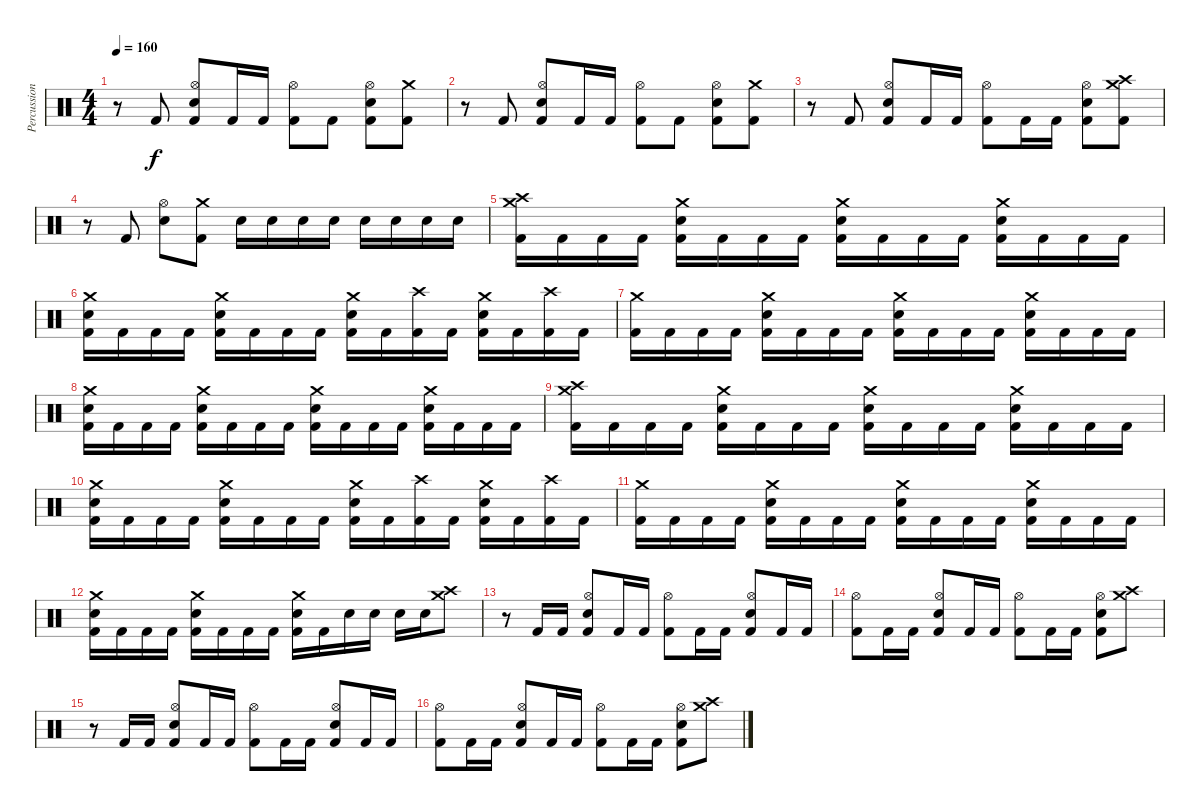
\track ("Percussion" "Percussion") {instrument percussion}
\staff {score}
\articulation defaults
\ts (4 4)
\tempo 160
\clef neutral
\ks c
r.8{dy f} "Kick (hit) 2".8 ("Hi-Hat (open)" "Electric Snare (hit)" "Kick (hit) 2").8 "Kick (hit) 2".16 "Kick (hit) 2".16 ("Hi-Hat (open)" "Kick (hit) 2").8 "Kick (hit) 2".8 ("Hi-Hat (open)" "Electric Snare (hit)" "Kick (hit) 2").8 ("Crash medium (hit)" "Kick (hit) 2").8 |
r.8 "Kick (hit) 2".8 ("Hi-Hat (open)" "Electric Snare (hit)" "Kick (hit) 2").8 "Kick (hit) 2".16 "Kick (hit) 2".16 ("Hi-Hat (open)" "Kick (hit) 2").8 "Kick (hit) 2".8 ("Hi-Hat (open)" "Electric Snare (hit)" "Kick (hit) 2").8 ("Crash medium (hit)" "Kick (hit) 2").8 |
r.8 "Kick (hit) 2".8 ("Hi-Hat (open)" "Electric Snare (hit)" "Kick (hit) 2").8 "Kick (hit) 2".16 "Kick (hit) 2".16 ("Hi-Hat (open)" "Kick (hit) 2").8 "Kick (hit) 2".16 "Kick (hit) 2".16 ("Hi-Hat (open)" "Electric Snare (hit)" "Kick (hit) 2").8 ("Crash medium (hit)" "Crash high (hit)" "Kick (hit) 2").8 |
r.8 "Kick (hit) 2".8 ("Hi-Hat (open)" "Electric Snare (hit)").8 ("Crash medium (hit)" "Kick (hit) 2").8 "Electric Snare (hit)".16 "Electric Snare (hit)".16 "Electric Snare (hit)".16 "Electric Snare (hit)".16 "Electric Snare (hit)".16 "Electric Snare (hit)".16 "Electric Snare (hit)".16 "Electric Snare (hit)".16 |
("Crash medium (hit)" "Crash high (hit)" "Kick (hit) 2").16 "Kick (hit) 2".16 "Kick (hit) 2".16 "Kick (hit) 2".16 ("Crash medium (hit)" "Electric Snare (hit)" "Kick (hit) 2").16 "Kick (hit) 2".16 "Kick (hit) 2".16 "Kick (hit) 2".16 ("Crash medium (hit)" "Electric Snare (hit)" "Kick (hit) 2").16 "Kick (hit) 2".16 "Kick (hit) 2".16 "Kick (hit) 2".16 ("Crash medium (hit)" "Electric Snare (hit)" "Kick (hit) 2").16 "Kick (hit) 2".16 "Kick (hit) 2".16 "Kick (hit) 2".16 |
("Crash medium (hit)" "Electric Snare (hit)" "Kick (hit) 2").16 "Kick (hit) 2".16 "Kick (hit) 2".16 "Kick (hit) 2".16 ("Crash medium (hit)" "Electric Snare (hit)" "Kick (hit) 2").16 "Kick (hit) 2".16 "Kick (hit) 2".16 "Kick (hit) 2".16 ("Crash medium (hit)" "Electric Snare (hit)" "Kick (hit) 2").16 "Kick (hit) 2".16 ("Crash high (hit)" "Kick (hit) 2").16 "Kick (hit) 2".16 ("Crash medium (hit)" "Electric Snare (hit)" "Kick (hit) 2").16 "Kick (hit) 2".16 ("Crash high (hit)" "Kick (hit) 2").16 "Kick (hit) 2".16 |
("Crash medium (hit)" "Kick (hit) 2").16 "Kick (hit) 2".16 "Kick (hit) 2".16 "Kick (hit) 2".16 ("Crash medium (hit)" "Electric Snare (hit)" "Kick (hit) 2").16 "Kick (hit) 2".16 "Kick (hit) 2".16 "Kick (hit) 2".16 ("Crash medium (hit)" "Electric Snare (hit)" "Kick (hit) 2").16 "Kick (hit) 2".16 "Kick (hit) 2".16 "Kick (hit) 2".16 ("Crash medium (hit)" "Electric Snare (hit)" "Kick (hit) 2").16 "Kick (hit) 2".16 "Kick (hit) 2".16 "Kick (hit) 2".16 |
("Crash medium (hit)" "Electric Snare (hit)" "Kick (hit) 2").16 "Kick (hit) 2".16 "Kick (hit) 2".16 "Kick (hit) 2".16 ("Crash medium (hit)" "Electric Snare (hit)" "Kick (hit) 2").16 "Kick (hit) 2".16 "Kick (hit) 2".16 "Kick (hit) 2".16 ("Crash medium (hit)" "Electric Snare (hit)" "Kick (hit) 2").16 "Kick (hit) 2".16 "Kick (hit) 2".16 "Kick (hit) 2".16 ("Crash medium (hit)" "Electric Snare (hit)" "Kick (hit) 2").16 "Kick (hit) 2".16 "Kick (hit) 2".16 "Kick (hit) 2".16 |
("Crash medium (hit)" "Crash high (hit)" "Kick (hit) 2").16 "Kick (hit) 2".16 "Kick (hit) 2".16 "Kick (hit) 2".16 ("Crash medium (hit)" "Electric Snare (hit)" "Kick (hit) 2").16 "Kick (hit) 2".16 "Kick (hit) 2".16 "Kick (hit) 2".16 ("Crash medium (hit)" "Electric Snare (hit)" "Kick (hit) 2").16 "Kick (hit) 2".16 "Kick (hit) 2".16 "Kick (hit) 2".16 ("Crash medium (hit)" "Electric Snare (hit)" "Kick (hit) 2").16 "Kick (hit) 2".16 "Kick (hit) 2".16 "Kick (hit) 2".16 |
("Crash medium (hit)" "Electric Snare (hit)" "Kick (hit) 2").16 "Kick (hit) 2".16 "Kick (hit) 2".16 "Kick (hit) 2".16 ("Crash medium (hit)" "Electric Snare (hit)" "Kick (hit) 2").16 "Kick (hit) 2".16 "Kick (hit) 2".16 "Kick (hit) 2".16 ("Crash medium (hit)" "Electric Snare (hit)" "Kick (hit) 2").16 "Kick (hit) 2".16 ("Crash high (hit)" "Kick (hit) 2").16 "Kick (hit) 2".16 ("Crash medium (hit)" "Electric Snare (hit)" "Kick (hit) 2").16 "Kick (hit) 2".16 ("Crash high (hit)" "Kick (hit) 2").16 "Kick (hit) 2".16 |
("Crash medium (hit)" "Kick (hit) 2").16 "Kick (hit) 2".16 "Kick (hit) 2".16 "Kick (hit) 2".16 ("Crash medium (hit)" "Electric Snare (hit)" "Kick (hit) 2").16 "Kick (hit) 2".16 "Kick (hit) 2".16 "Kick (hit) 2".16 ("Crash medium (hit)" "Electric Snare (hit)" "Kick (hit) 2").16 "Kick (hit) 2".16 "Kick (hit) 2".16 "Kick (hit) 2".16 ("Crash medium (hit)" "Electric Snare (hit)" "Kick (hit) 2").16 "Kick (hit) 2".16 "Kick (hit) 2".16 "Kick (hit) 2".16 |
("Crash medium (hit)" "Electric Snare (hit)" "Kick (hit) 2").16 "Kick (hit) 2".16 "Kick (hit) 2".16 "Kick (hit) 2".16 ("Crash medium (hit)" "Electric Snare (hit)" "Kick (hit) 2").16 "Kick (hit) 2".16 "Kick (hit) 2".16 "Kick (hit) 2".16 ("Crash medium (hit)" "Electric Snare (hit)" "Kick (hit) 2").16 "Kick (hit) 2".16 "Electric Snare (hit)".16 "Electric Snare (hit)".16 "Electric Snare (hit)".16 "Electric Snare (hit)".16 ("Crash high (hit)" "Crash medium (hit)").8 |
r.8 "Kick (hit) 2".16 "Kick (hit) 2".16 ("Hi-Hat (open)" "Electric Snare (hit)" "Kick (hit) 2").8 "Kick (hit) 2".16 "Kick (hit) 2".16 ("Hi-Hat (open)" "Kick (hit) 2").8 "Kick (hit) 2".16 "Kick (hit) 2".16 ("Hi-Hat (open)" "Electric Snare (hit)" "Kick (hit) 2").8 "Kick (hit) 2".16 "Kick (hit) 2".16 |
("Hi-Hat (open)" "Kick (hit) 2").8 "Kick (hit) 2".16 "Kick (hit) 2".16 ("Hi-Hat (open)" "Electric Snare (hit)" "Kick (hit) 2").8 "Kick (hit) 2".16 "Kick (hit) 2".16 ("Hi-Hat (open)" "Kick (hit) 2").8 "Kick (hit) 2".16 "Kick (hit) 2".16 ("Hi-Hat (open)" "Electric Snare (hit)" "Kick (hit) 2").8 ("Crash high (hit)" "Crash medium (hit)").8 |
r.8 "Kick (hit) 2".16 "Kick (hit) 2".16 ("Hi-Hat (open)" "Electric Snare (hit)" "Kick (hit) 2").8 "Kick (hit) 2".16 "Kick (hit) 2".16 ("Hi-Hat (open)" "Kick (hit) 2").8 "Kick (hit) 2".16 "Kick (hit) 2".16 ("Hi-Hat (open)" "Electric Snare (hit)" "Kick (hit) 2").8 "Kick (hit) 2".16 "Kick (hit) 2".16 |
("Hi-Hat (open)" "Kick (hit) 2").8 "Kick (hit) 2".16 "Kick (hit) 2".16 ("Hi-Hat (open)" "Electric Snare (hit)" "Kick (hit) 2").8 "Kick (hit) 2".16 "Kick (hit) 2".16 ("Hi-Hat (open)" "Kick (hit) 2").8 "Kick (hit) 2".16 "Kick (hit) 2".16 ("Hi-Hat (open)" "Electric Snare (hit)" "Kick (hit) 2").8 ("Crash high (hit)" "Crash medium (hit)").8
